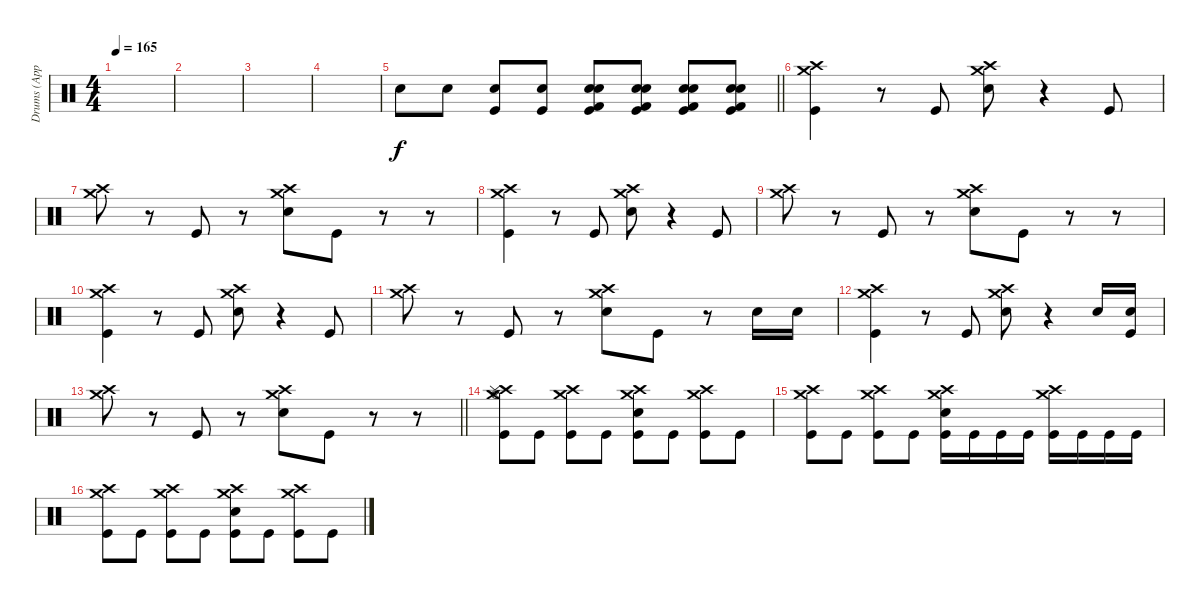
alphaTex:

\track ("Drums (Approx.)" "Drums (App") {instrument percussion}
\staff {score}
\articulation defaults
\ts (4 4)
\tempo 165
\clef neutral
\ks c
|
|
|
|
\barLineRight lightlight "Electric Snare (hit)".8 "Electric Snare (hit)".8
("Kick (hit)" "Electric Snare (hit)").8 ("Kick (hit)" "Electric Snare (hit)").8 ("Snare (hit) 2" "Kick (hit) 2" "Kick (hit)" "Electric Snare (hit)").8 ("Snare (hit) 2" "Kick (hit) 2" "Kick (hit)" "Electric Snare (hit)").8 ("Snare (hit) 2" "Kick (hit) 2" "Kick (hit)" "Electric Snare (hit)").8 ("Snare (hit) 2" "Kick (hit) 2" "Kick (hit)" "Electric Snare (hit)").8 |
\section ("" "")
("Crash medium (hit)" "Crash high (hit)" "Kick (hit)").4 r.8 "Kick (hit)".8 ("Crash medium (hit)" "Crash high (hit)" "Electric Snare (hit)").8 r.4 "Kick (hit)".8 |
("Crash medium (hit)" "Crash high (hit)").8 r.8 "Kick (hit)".8 r.8 ("Crash medium (hit)" "Crash high (hit)" "Electric Snare (hit)").8 "Kick (hit)".8 r.8 r.8 |
("Crash medium (hit)" "Crash high (hit)" "Kick (hit)").4 r.8 "Kick (hit)".8 ("Crash medium (hit)" "Crash high (hit)" "Electric Snare (hit)").8 r.4 "Kick (hit)".8 |
("Crash medium (hit)" "Crash high (hit)").8 r.8 "Kick (hit)".8 r.8 ("Crash medium (hit)" "Crash high (hit)" "Electric Snare (hit)").8 "Kick (hit)".8 r.8 r.8 |
("Crash medium (hit)" "Crash high (hit)" "Kick (hit)").4 r.8 "Kick (hit)".8 ("Crash medium (hit)" "Crash high (hit)" "Electric Snare (hit)").8 r.4 "Kick (hit)".8 |
("Crash medium (hit)" "Crash high (hit)").8 r.8 "Kick (hit)".8 r.8 ("Crash medium (hit)" "Crash high (hit)" "Electric Snare (hit)").8 "Kick (hit)".8 r.8 "Electric Snare (hit)".16 "Electric Snare (hit)".16 |
("Crash medium (hit)" "Crash high (hit)" "Kick (hit)").4 r.8 "Kick (hit)".8 ("Crash medium (hit)" "Crash high (hit)" "Electric Snare (hit)").8 r.4 "Electric Snare (hit)".16 ("Electric Snare (hit)" "Kick (hit)").16 |
\barLineRight lightlight
("Crash medium (hit)" "Crash high (hit)").8 r.8 "Kick (hit)".8 r.8 ("Crash medium (hit)" "Crash high (hit)" "Electric Snare (hit)").8 "Kick (hit)".8 r.8 r.8 |
\section ("" "")
("Hi-Hat (open)" "Crash medium (hit)" "Crash high (hit)" "Splash (hit)" "Kick (hit)").8 "Kick (hit)".8 ("Crash medium (hit)" "Crash high (hit)" "Kick (hit)").8 "Kick (hit)".8 ("Crash medium (hit)" "Crash high (hit)" "Electric Snare (hit)" "Kick (hit)").8 "Kick (hit)".8 ("Crash medium (hit)" "Crash high (hit)" "Kick (hit)").8 "Kick (hit)".8 |
("Crash medium (hit)" "Crash high (hit)" "Kick (hit)").8 "Kick (hit)".8 ("Crash medium (hit)" "Crash high (hit)" "Kick (hit)").8 "Kick (hit)".8 ("Crash medium (hit)" "Crash high (hit)" "Electric Snare (hit)" "Kick (hit)").16 "Kick (hit)".16 "Kick (hit)".16 "Kick (hit)".16 ("Crash medium (hit)" "Crash high (hit)" "Kick (hit)").16 "Kick (hit)".16 "Kick (hit)".16 "Kick (hit)".16 |
("Crash medium (hit)" "Crash high (hit)" "Kick (hit)").8 "Kick (hit)".8 ("Crash medium (hit)" "Crash high (hit)" "Kick (hit)").8 "Kick (hit)".8 ("Crash medium (hit)" "Crash high (hit)" "Electric Snare (hit)" "Kick (hit)").8 "Kick (hit)".8 ("Crash medium (hit)" "Crash high (hit)" "Kick (hit)").8 "Kick (hit)".8
